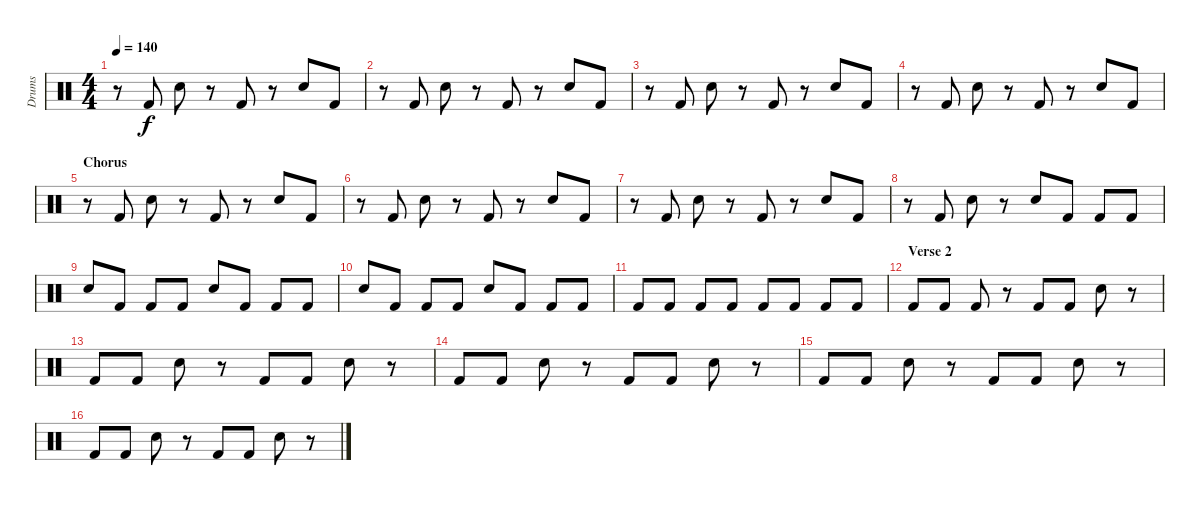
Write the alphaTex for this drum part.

\track ("Drums" "Drums") {instrument percussion}
\staff {score}
\articulation defaults
\ts (4 4)
\tempo 140
\clef neutral
\ks c
r.8{dy f} "Kick (hit) 2".8 "Snare (hit) 2".8 r.8 "Kick (hit) 2".8 r.8 "Snare (hit) 2".8 "Kick (hit) 2".8 |
r.8 "Kick (hit) 2".8 "Snare (hit) 2".8 r.8 "Kick (hit) 2".8 r.8 "Snare (hit) 2".8 "Kick (hit) 2".8 |
r.8 "Kick (hit) 2".8 "Snare (hit) 2".8 r.8 "Kick (hit) 2".8 r.8 "Snare (hit) 2".8 "Kick (hit) 2".8 |
r.8 "Kick (hit) 2".8 "Snare (hit) 2".8 r.8 "Kick (hit) 2".8 r.8 "Snare (hit) 2".8 "Kick (hit) 2".8 |
\section ("" "Chorus")
r.8 "Kick (hit) 2".8 "Snare (hit) 2".8 r.8 "Kick (hit) 2".8 r.8 "Snare (hit) 2".8 "Kick (hit) 2".8 |
r.8 "Kick (hit) 2".8 "Snare (hit) 2".8 r.8 "Kick (hit) 2".8 r.8 "Snare (hit) 2".8 "Kick (hit) 2".8 |
r.8 "Kick (hit) 2".8 "Snare (hit) 2".8 r.8 "Kick (hit) 2".8 r.8 "Snare (hit) 2".8 "Kick (hit) 2".8 |
r.8 "Kick (hit) 2".8 "Snare (hit) 2".8 r.8 "Snare (hit) 2".8 "Kick (hit) 2".8 "Kick (hit) 2".8 "Kick (hit) 2".8 |
"Snare (hit) 2".8 "Kick (hit) 2".8 "Kick (hit) 2".8 "Kick (hit) 2".8 "Snare (hit) 2".8 "Kick (hit) 2".8 "Kick (hit) 2".8 "Kick (hit) 2".8 |
"Snare (hit) 2".8 "Kick (hit) 2".8 "Kick (hit) 2".8 "Kick (hit) 2".8 "Snare (hit) 2".8 "Kick (hit) 2".8 "Kick (hit) 2".8 "Kick (hit) 2".8 |
"Kick (hit) 2".8 "Kick (hit) 2".8 "Kick (hit) 2".8 "Kick (hit) 2".8 "Kick (hit) 2".8 "Kick (hit) 2".8 "Kick (hit) 2".8 "Kick (hit) 2".8 |
\section ("" "Verse 2")
"Kick (hit) 2".8 "Kick (hit) 2".8 "Kick (hit) 2".8 r.8 "Kick (hit) 2".8 "Kick (hit) 2".8 "Snare (hit) 2".8 r.8 |
"Kick (hit) 2".8 "Kick (hit) 2".8 "Snare (hit) 2".8 r.8 "Kick (hit) 2".8 "Kick (hit) 2".8 "Snare (hit) 2".8 r.8 |
"Kick (hit) 2".8 "Kick (hit) 2".8 "Snare (hit) 2".8 r.8 "Kick (hit) 2".8 "Kick (hit) 2".8 "Snare (hit) 2".8 r.8 |
"Kick (hit) 2".8 "Kick (hit) 2".8 "Snare (hit) 2".8 r.8 "Kick (hit) 2".8 "Kick (hit) 2".8 "Snare (hit) 2".8 r.8 |
"Kick (hit) 2".8 "Kick (hit) 2".8 "Snare (hit) 2".8 r.8 "Kick (hit) 2".8 "Kick (hit) 2".8 "Snare (hit) 2".8 r.8
